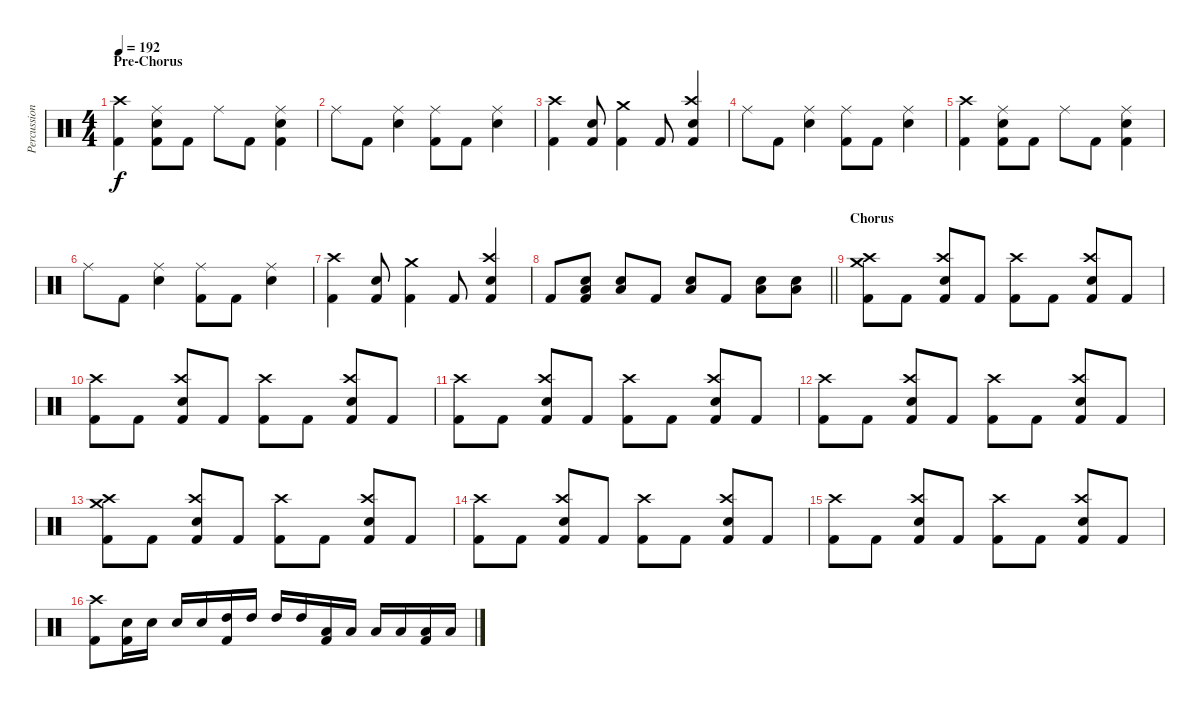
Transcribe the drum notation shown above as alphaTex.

\track ("Percussion" "Percussion") {instrument percussion}
\staff {score}
\articulation defaults
\ts (4 4)
\section ("" "Pre-Chorus")
\tempo 192
\clef neutral
\ks aminor
("Kick (hit) 2" "Crash high (hit)").4{dy f} ("Kick (hit) 2" "Snare (hit) 2" "Ride (middle)").8 "Kick (hit) 2".8 "Ride (middle)".8 "Kick (hit) 2".8 ("Kick (hit) 2" "Snare (hit) 2" "Ride (middle)").4 |
"Ride (middle)".8 "Kick (hit) 2".8 ("Snare (hit) 2" "Ride (middle)").4 ("Kick (hit) 2" "Ride (middle)").8 "Kick (hit) 2".8 ("Snare (hit) 2" "Ride (middle)").4 |
("Kick (hit) 2" "Crash high (hit)").4 ("Kick (hit) 2" "Snare (hit) 2").8 ("Kick (hit) 2" "Crash medium (hit)").4 "Kick (hit) 2".8 ("Kick (hit) 2" "Snare (hit) 2" "Crash high (hit)").4 |
"Ride (middle)".8 "Kick (hit) 2".8 ("Snare (hit) 2" "Ride (middle)").4 ("Kick (hit) 2" "Ride (middle)").8 "Kick (hit) 2".8 ("Snare (hit) 2" "Ride (middle)").4 |
("Kick (hit) 2" "Crash high (hit)").4 ("Kick (hit) 2" "Snare (hit) 2" "Ride (middle)").8 "Kick (hit) 2".8 "Ride (middle)".8 "Kick (hit) 2".8 ("Kick (hit) 2" "Snare (hit) 2" "Ride (middle)").4 |
"Ride (middle)".8 "Kick (hit) 2".8 ("Snare (hit) 2" "Ride (middle)").4 ("Kick (hit) 2" "Ride (middle)").8 "Kick (hit) 2".8 ("Snare (hit) 2" "Ride (middle)").4 |
("Kick (hit) 2" "Crash high (hit)").4 ("Kick (hit) 2" "Snare (hit) 2").8 ("Kick (hit) 2" "Crash medium (hit)").4 "Kick (hit) 2".8 ("Kick (hit) 2" "Snare (hit) 2" "Crash high (hit)").4 |
\barLineRight lightlight "Kick (hit) 2".8
("Kick (hit) 2" "Snare (hit) 2" "Low Floor Tom (hit)").8 ("Snare (hit) 2" "Low Floor Tom (hit)").8 "Kick (hit) 2".8 ("Snare (hit) 2" "Low Floor Tom (hit)").8 "Kick (hit) 2".8 ("Snare (hit) 2" "Low Floor Tom (hit)").8 ("Snare (hit) 2" "Low Floor Tom (hit)").8 |
\section ("" "Chorus")
("Kick (hit) 2" "Crash medium (hit)" "Crash high (hit)").8 "Kick (hit) 2".8 ("Kick (hit) 2" "Snare (hit) 2" "Crash high (hit)").8 "Kick (hit) 2".8 ("Kick (hit) 2" "Crash high (hit)").8 "Kick (hit) 2".8 ("Kick (hit) 2" "Snare (hit) 2" "Crash high (hit)").8 "Kick (hit) 2".8 |
("Kick (hit) 2" "Crash high (hit)").8 "Kick (hit) 2".8 ("Kick (hit) 2" "Snare (hit) 2" "Crash high (hit)").8 "Kick (hit) 2".8 ("Kick (hit) 2" "Crash high (hit)").8 "Kick (hit) 2".8 ("Kick (hit) 2" "Snare (hit) 2" "Crash high (hit)").8 "Kick (hit) 2".8 |
("Kick (hit) 2" "Crash high (hit)").8 "Kick (hit) 2".8 ("Kick (hit) 2" "Snare (hit) 2" "Crash high (hit)").8 "Kick (hit) 2".8 ("Kick (hit) 2" "Crash high (hit)").8 "Kick (hit) 2".8 ("Kick (hit) 2" "Snare (hit) 2" "Crash high (hit)").8 "Kick (hit) 2".8 |
("Kick (hit) 2" "Crash high (hit)").8 "Kick (hit) 2".8 ("Kick (hit) 2" "Snare (hit) 2" "Crash high (hit)").8 "Kick (hit) 2".8 ("Kick (hit) 2" "Crash high (hit)").8 "Kick (hit) 2".8 ("Kick (hit) 2" "Snare (hit) 2" "Crash high (hit)").8 "Kick (hit) 2".8 |
("Kick (hit) 2" "Crash medium (hit)" "Crash high (hit)").8 "Kick (hit) 2".8 ("Kick (hit) 2" "Snare (hit) 2" "Crash high (hit)").8 "Kick (hit) 2".8 ("Kick (hit) 2" "Crash high (hit)").8 "Kick (hit) 2".8 ("Kick (hit) 2" "Snare (hit) 2" "Crash high (hit)").8 "Kick (hit) 2".8 |
("Kick (hit) 2" "Crash high (hit)").8 "Kick (hit) 2".8 ("Kick (hit) 2" "Snare (hit) 2" "Crash high (hit)").8 "Kick (hit) 2".8 ("Kick (hit) 2" "Crash high (hit)").8 "Kick (hit) 2".8 ("Kick (hit) 2" "Snare (hit) 2" "Crash high (hit)").8 "Kick (hit) 2".8 |
("Kick (hit) 2" "Crash high (hit)").8 "Kick (hit) 2".8 ("Kick (hit) 2" "Snare (hit) 2" "Crash high (hit)").8 "Kick (hit) 2".8 ("Kick (hit) 2" "Crash high (hit)").8 "Kick (hit) 2".8 ("Kick (hit) 2" "Snare (hit) 2" "Crash high (hit)").8 "Kick (hit) 2".8 |
("Kick (hit) 2" "Crash high (hit)").8 ("Kick (hit) 2" "Snare (hit) 2").16 "Snare (hit) 2".16 "Snare (hit) 2".16 "Snare (hit) 2".16 ("Kick (hit) 2" "High Tom (hit)").16 "High Tom (hit)".16 "High Tom (hit)".16 "High Tom (hit)".16 ("Kick (hit) 2" "Low Tom (hit)").16 "Low Tom (hit)".16 "Low Tom (hit)".16 "Low Tom (hit)".16 ("Kick (hit) 2" "Low Floor Tom (hit)").16 "Low Floor Tom (hit)".16
